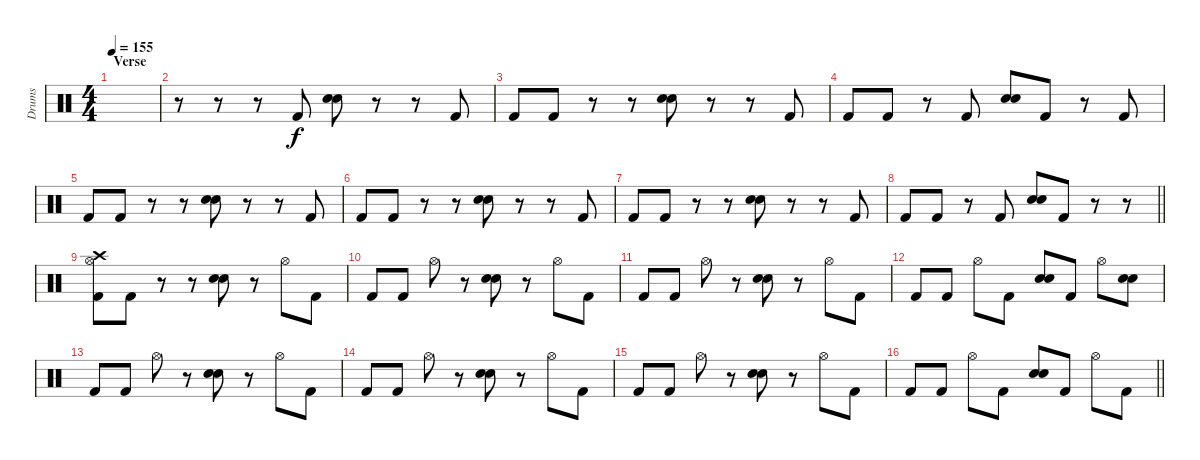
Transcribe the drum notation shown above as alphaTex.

\track ("Drums" "Drums") {instrument percussion}
\staff {score}
\articulation defaults
\ts (4 4)
\section ("" "Verse")
\tempo 155
\clef neutral
\ks c
|
r.8 r.8 r.8 "Kick (hit) 2".8 ("Electric Snare (hit)" "Hand Clap (hit)").8 r.8 r.8 "Kick (hit) 2".8 |
"Kick (hit) 2".8 "Kick (hit) 2".8 r.8 r.8 ("Electric Snare (hit)" "Hand Clap (hit)").8 r.8 r.8 "Kick (hit) 2".8 |
"Kick (hit) 2".8 "Kick (hit) 2".8 r.8 "Kick (hit) 2".8 ("Electric Snare (hit)" "Hand Clap (hit)").8 "Kick (hit) 2".8 r.8 "Kick (hit) 2".8 |
"Kick (hit) 2".8 "Kick (hit) 2".8 r.8 r.8 ("Electric Snare (hit)" "Hand Clap (hit)").8 r.8 r.8 "Kick (hit) 2".8 |
"Kick (hit) 2".8 "Kick (hit) 2".8 r.8 r.8 ("Electric Snare (hit)" "Hand Clap (hit)").8 r.8 r.8 "Kick (hit) 2".8 |
"Kick (hit) 2".8 "Kick (hit) 2".8 r.8 r.8 ("Electric Snare (hit)" "Hand Clap (hit)").8 r.8 r.8 "Kick (hit) 2".8 |
\barLineRight lightlight "Kick (hit) 2".8 "Kick (hit) 2".8
r.8 "Kick (hit) 2".8 ("Electric Snare (hit)" "Hand Clap (hit)").8 "Kick (hit) 2".8 r.8 r.8 |
\section ("" "")
("Crash high (hit)" "Hi-Hat (open)" "Kick (hit) 2").8 "Kick (hit) 2".8 r.8 r.8 ("Electric Snare (hit)" "Hand Clap (hit)").8 r.8 "Hi-Hat (open)".8 "Kick (hit) 2".8 |
"Kick (hit) 2".8 "Kick (hit) 2".8 "Hi-Hat (open)".8 r.8 ("Electric Snare (hit)" "Hand Clap (hit)").8 r.8 "Hi-Hat (open)".8 "Kick (hit) 2".8 |
"Kick (hit) 2".8 "Kick (hit) 2".8 "Hi-Hat (open)".8 r.8 ("Electric Snare (hit)" "Hand Clap (hit)").8 r.8 "Hi-Hat (open)".8 "Kick (hit) 2".8 |
"Kick (hit) 2".8 "Kick (hit) 2".8 "Hi-Hat (open)".8 "Kick (hit) 2".8 ("Electric Snare (hit)" "Hand Clap (hit)").8 "Kick (hit) 2".8 "Hi-Hat (open)".8 ("Electric Snare (hit)" "Hand Clap (hit)").8 |
"Kick (hit) 2".8 "Kick (hit) 2".8 "Hi-Hat (open)".8 r.8 ("Electric Snare (hit)" "Hand Clap (hit)").8 r.8 "Hi-Hat (open)".8 "Kick (hit) 2".8 |
"Kick (hit) 2".8 "Kick (hit) 2".8 "Hi-Hat (open)".8 r.8 ("Electric Snare (hit)" "Hand Clap (hit)").8 r.8 "Hi-Hat (open)".8 "Kick (hit) 2".8 |
"Kick (hit) 2".8 "Kick (hit) 2".8 "Hi-Hat (open)".8 r.8 ("Electric Snare (hit)" "Hand Clap (hit)").8 r.8 "Hi-Hat (open)".8 "Kick (hit) 2".8 |
\barLineRight lightlight "Kick (hit) 2".8 "Kick (hit) 2".8 "Hi-Hat (open)".8 "Kick (hit) 2".8
("Electric Snare (hit)" "Hand Clap (hit)").8 "Kick (hit) 2".8 "Hi-Hat (open)".8 "Kick (hit) 2".8
